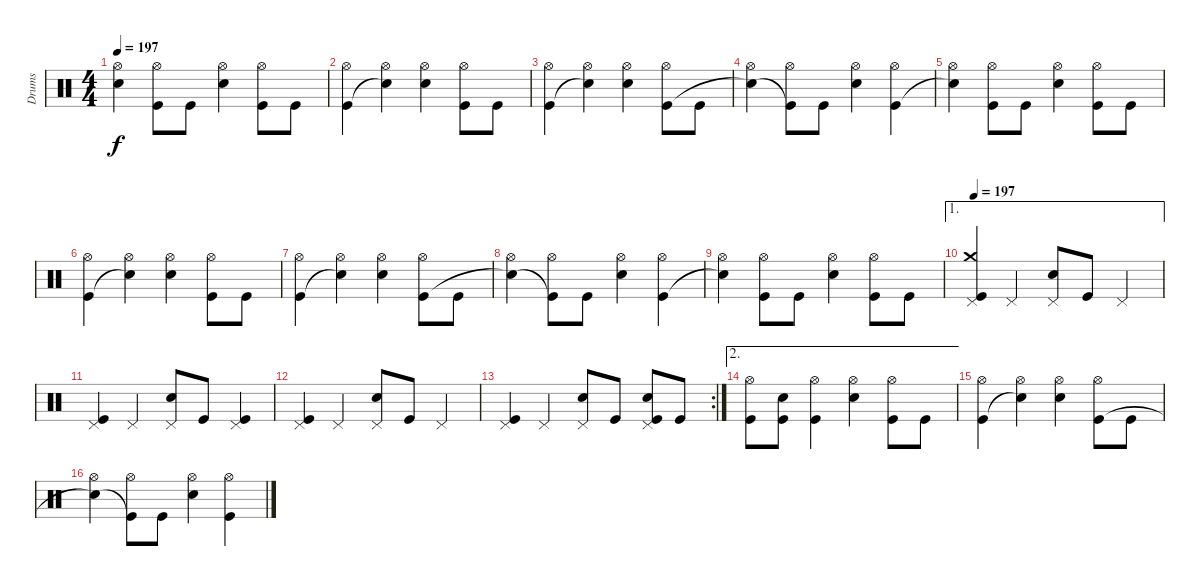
\track ("Drums" "Drums") {instrument percussion}
\staff {score}
\articulation defaults
\ts (4 4)
\tempo 197
\clef neutral
\ks c
("Hi-Hat (open)" "Snare (hit)"{t}).4{dy f} ("Hi-Hat (open)" "Kick (hit)").8 "Kick (hit)".8 ("Hi-Hat (open)" "Snare (hit) 2").4 ("Hi-Hat (open)" "Kick (hit)").8 "Kick (hit)".8 |
("Hi-Hat (open)" "Kick (hit)").4 ("Hi-Hat (open)" "Snare (hit)"{t}).4 ("Hi-Hat (open)" "Snare (hit) 2").4 ("Hi-Hat (open)" "Kick (hit)").8 "Kick (hit)".8 |
("Hi-Hat (open)" "Kick (hit)").4 ("Hi-Hat (open)" "Snare (hit)"{t}).4 ("Hi-Hat (open)" "Snare (hit) 2").4 ("Hi-Hat (open)" "Kick (hit)").8 "Kick (hit)".8 |
("Hi-Hat (open)" "Snare (hit)"{t}).4 ("Hi-Hat (open)" "Kick (hit)"{t}).8 "Kick (hit)".8 ("Hi-Hat (open)" "Snare (hit) 2").4 ("Hi-Hat (open)" "Kick (hit)").4 |
("Hi-Hat (open)" "Snare (hit)"{t}).4 ("Hi-Hat (open)" "Kick (hit)").8 "Kick (hit)".8 ("Hi-Hat (open)" "Snare (hit) 2").4 ("Hi-Hat (open)" "Kick (hit)").8 "Kick (hit)".8 |
("Hi-Hat (open)" "Kick (hit)").4 ("Hi-Hat (open)" "Snare (hit)"{t}).4 ("Hi-Hat (open)" "Snare (hit) 2").4 ("Hi-Hat (open)" "Kick (hit)").8 "Kick (hit)".8 |
("Hi-Hat (open)" "Kick (hit)").4 ("Hi-Hat (open)" "Snare (hit)"{t}).4 ("Hi-Hat (open)" "Snare (hit) 2").4 ("Hi-Hat (open)" "Kick (hit)").8 "Kick (hit)".8 |
("Hi-Hat (open)" "Snare (hit)"{t}).4 ("Hi-Hat (open)" "Kick (hit)"{t}).8 "Kick (hit)".8 ("Hi-Hat (open)" "Snare (hit) 2").4 ("Hi-Hat (open)" "Kick (hit)").4 |
("Hi-Hat (open)" "Snare (hit)"{t}).4 ("Hi-Hat (open)" "Kick (hit)").8 "Kick (hit)".8 ("Hi-Hat (open)" "Snare (hit) 2").4 ("Hi-Hat (open)" "Kick (hit)").8 "Kick (hit)".8 |
\ae 1
\tempo 197
("Crash medium (hit)" "Pedal Hi-Hat (hit)" "Kick (hit)").4{volume 16} "Pedal Hi-Hat (hit)".4 ("Pedal Hi-Hat (hit)" "Snare (hit) 2").8 "Kick (hit)".8 "Pedal Hi-Hat (hit)".4 |
("Pedal Hi-Hat (hit)" "Kick (hit)").4 "Pedal Hi-Hat (hit)".4 ("Pedal Hi-Hat (hit)" "Snare (hit) 2").8 "Kick (hit)".8 ("Pedal Hi-Hat (hit)" "Kick (hit)").4 |
("Pedal Hi-Hat (hit)" "Kick (hit)").4 "Pedal Hi-Hat (hit)".4 ("Pedal Hi-Hat (hit)" "Snare (hit) 2").8 "Kick (hit)".8 "Pedal Hi-Hat (hit)".4 |
\rc 2
("Pedal Hi-Hat (hit)" "Kick (hit)").4 "Pedal Hi-Hat (hit)".4 ("Pedal Hi-Hat (hit)" "Snare (hit) 2").8 "Kick (hit)".8 ("Pedal Hi-Hat (hit)" "Snare (hit) 2" "Kick (hit)").8 "Kick (hit)".8 |
\ae 2
("Hi-Hat (open)" "Kick (hit)").8 ("Snare (hit) 2" "Kick (hit)").8 ("Hi-Hat (open)" "Kick (hit)").4 ("Hi-Hat (open)" "Snare (hit) 2").4 ("Hi-Hat (open)" "Kick (hit)").8 "Kick (hit)".8 |
("Hi-Hat (open)" "Kick (hit)").4 ("Hi-Hat (open)" "Snare (hit)"{t}).4 ("Hi-Hat (open)" "Snare (hit) 2").4 ("Hi-Hat (open)" "Kick (hit)").8 "Kick (hit)".8 |
("Hi-Hat (open)" "Snare (hit)"{t}).4 ("Hi-Hat (open)" "Kick (hit)"{t}).8 "Kick (hit)".8 ("Hi-Hat (open)" "Snare (hit) 2").4 ("Hi-Hat (open)" "Kick (hit)").4
